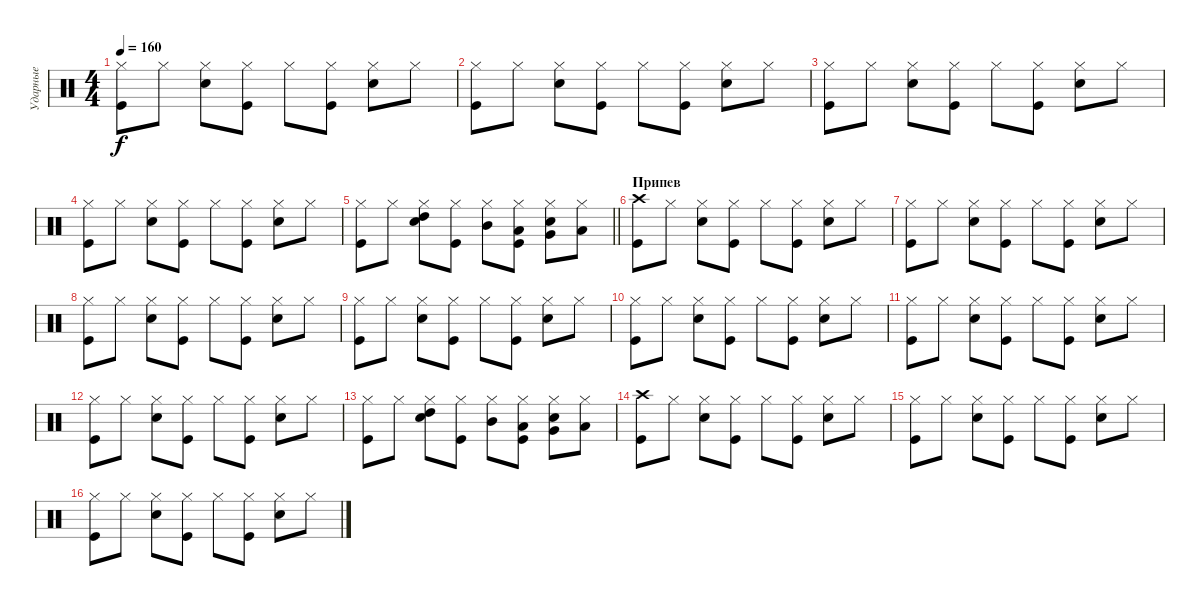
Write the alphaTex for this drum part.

\track ("Ударные" "Ударные") {instrument percussion}
\staff {score}
\articulation defaults
\ts (4 4)
\tempo 160
\clef neutral
\ks c
("Kick (hit)" "Hi-Hat (closed)").8{dy f} "Hi-Hat (closed)".8 ("Snare (hit) 2" "Hi-Hat (closed)").8 ("Kick (hit)" "Hi-Hat (closed)").8 "Hi-Hat (closed)".8 ("Kick (hit)" "Hi-Hat (closed)").8 ("Snare (hit) 2" "Hi-Hat (closed)").8 "Hi-Hat (closed)".8 |
("Kick (hit)" "Hi-Hat (closed)").8 "Hi-Hat (closed)".8 ("Snare (hit) 2" "Hi-Hat (closed)").8 ("Kick (hit)" "Hi-Hat (closed)").8 "Hi-Hat (closed)".8 ("Kick (hit)" "Hi-Hat (closed)").8 ("Snare (hit) 2" "Hi-Hat (closed)").8 "Hi-Hat (closed)".8 |
("Kick (hit)" "Hi-Hat (closed)").8 "Hi-Hat (closed)".8 ("Snare (hit) 2" "Hi-Hat (closed)").8 ("Kick (hit)" "Hi-Hat (closed)").8 "Hi-Hat (closed)".8 ("Kick (hit)" "Hi-Hat (closed)").8 ("Snare (hit) 2" "Hi-Hat (closed)").8 "Hi-Hat (closed)".8 |
("Kick (hit)" "Hi-Hat (closed)").8 "Hi-Hat (closed)".8 ("Snare (hit) 2" "Hi-Hat (closed)").8 ("Kick (hit)" "Hi-Hat (closed)").8 "Hi-Hat (closed)".8 ("Kick (hit)" "Hi-Hat (closed)").8 ("Snare (hit) 2" "Hi-Hat (closed)").8 "Hi-Hat (closed)".8 |
\barLineRight lightlight
("Kick (hit)" "Hi-Hat (closed)").8 "Hi-Hat (closed)".8 ("Snare (hit) 2" "High Tom (hit)" "Hi-Hat (closed)").8 ("Kick (hit)" "Hi-Hat (closed)").8 ("Mid Tom (hit)" "Hi-Hat (closed)").8 ("Kick (hit)" "Low Tom (hit)" "Hi-Hat (closed)").8 ("Snare (hit) 2" "Very Low Tom (hit)" "Hi-Hat (closed)").8 ("Low Floor Tom (hit)" "Hi-Hat (closed)").8 |
\section ("" "Припев")
("Kick (hit)" "Crash high (hit)").8 "Hi-Hat (closed)".8 ("Snare (hit) 2" "Hi-Hat (closed)").8 ("Kick (hit)" "Hi-Hat (closed)").8 "Hi-Hat (closed)".8 ("Kick (hit)" "Hi-Hat (closed)").8 ("Snare (hit) 2" "Hi-Hat (closed)").8 "Hi-Hat (closed)".8 |
("Kick (hit)" "Hi-Hat (closed)").8 "Hi-Hat (closed)".8 ("Snare (hit) 2" "Hi-Hat (closed)").8 ("Kick (hit)" "Hi-Hat (closed)").8 "Hi-Hat (closed)".8 ("Kick (hit)" "Hi-Hat (closed)").8 ("Snare (hit) 2" "Hi-Hat (closed)").8 "Hi-Hat (closed)".8 |
("Kick (hit)" "Hi-Hat (closed)").8 "Hi-Hat (closed)".8 ("Snare (hit) 2" "Hi-Hat (closed)").8 ("Kick (hit)" "Hi-Hat (closed)").8 "Hi-Hat (closed)".8 ("Kick (hit)" "Hi-Hat (closed)").8 ("Snare (hit) 2" "Hi-Hat (closed)").8 "Hi-Hat (closed)".8 |
("Kick (hit)" "Hi-Hat (closed)").8 "Hi-Hat (closed)".8 ("Snare (hit) 2" "Hi-Hat (closed)").8 ("Kick (hit)" "Hi-Hat (closed)").8 "Hi-Hat (closed)".8 ("Kick (hit)" "Hi-Hat (closed)").8 ("Snare (hit) 2" "Hi-Hat (closed)").8 "Hi-Hat (closed)".8 |
("Kick (hit)" "Hi-Hat (closed)").8 "Hi-Hat (closed)".8 ("Snare (hit) 2" "Hi-Hat (closed)").8 ("Kick (hit)" "Hi-Hat (closed)").8 "Hi-Hat (closed)".8 ("Kick (hit)" "Hi-Hat (closed)").8 ("Snare (hit) 2" "Hi-Hat (closed)").8 "Hi-Hat (closed)".8 |
("Kick (hit)" "Hi-Hat (closed)").8 "Hi-Hat (closed)".8 ("Snare (hit) 2" "Hi-Hat (closed)").8 ("Kick (hit)" "Hi-Hat (closed)").8 "Hi-Hat (closed)".8 ("Kick (hit)" "Hi-Hat (closed)").8 ("Snare (hit) 2" "Hi-Hat (closed)").8 "Hi-Hat (closed)".8 |
("Kick (hit)" "Hi-Hat (closed)").8 "Hi-Hat (closed)".8 ("Snare (hit) 2" "Hi-Hat (closed)").8 ("Kick (hit)" "Hi-Hat (closed)").8 "Hi-Hat (closed)".8 ("Kick (hit)" "Hi-Hat (closed)").8 ("Snare (hit) 2" "Hi-Hat (closed)").8 "Hi-Hat (closed)".8 |
("Kick (hit)" "Hi-Hat (closed)").8 "Hi-Hat (closed)".8 ("Snare (hit) 2" "High Tom (hit)" "Hi-Hat (closed)").8 ("Kick (hit)" "Hi-Hat (closed)").8 ("Mid Tom (hit)" "Hi-Hat (closed)").8 ("Kick (hit)" "Low Tom (hit)" "Hi-Hat (closed)").8 ("Snare (hit) 2" "Very Low Tom (hit)" "Hi-Hat (closed)").8 ("Low Floor Tom (hit)" "Hi-Hat (closed)").8 |
("Kick (hit)" "Crash high (hit)").8 "Hi-Hat (closed)".8 ("Snare (hit) 2" "Hi-Hat (closed)").8 ("Kick (hit)" "Hi-Hat (closed)").8 "Hi-Hat (closed)".8 ("Kick (hit)" "Hi-Hat (closed)").8 ("Snare (hit) 2" "Hi-Hat (closed)").8 "Hi-Hat (closed)".8 |
("Kick (hit)" "Hi-Hat (closed)").8 "Hi-Hat (closed)".8 ("Snare (hit) 2" "Hi-Hat (closed)").8 ("Kick (hit)" "Hi-Hat (closed)").8 "Hi-Hat (closed)".8 ("Kick (hit)" "Hi-Hat (closed)").8 ("Snare (hit) 2" "Hi-Hat (closed)").8 "Hi-Hat (closed)".8 |
("Kick (hit)" "Hi-Hat (closed)").8 "Hi-Hat (closed)".8 ("Snare (hit) 2" "Hi-Hat (closed)").8 ("Kick (hit)" "Hi-Hat (closed)").8 "Hi-Hat (closed)".8 ("Kick (hit)" "Hi-Hat (closed)").8 ("Snare (hit) 2" "Hi-Hat (closed)").8 "Hi-Hat (closed)".8
